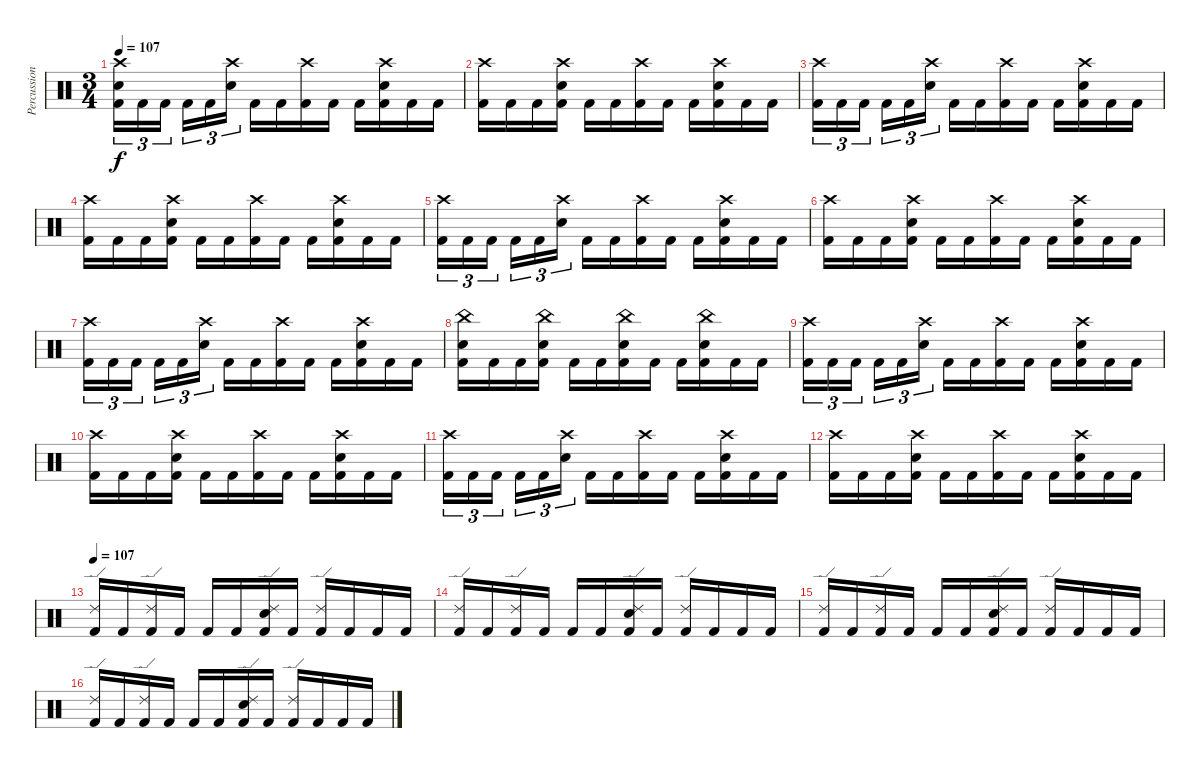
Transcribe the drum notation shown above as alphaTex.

\track ("Percussion" "Percussion") {instrument percussion}
\staff {score}
\articulation defaults
\ts (3 4)
\tempo 107
\clef neutral
\ks c
("Crash high (hit)" "Electric Snare (hit)" "Kick (hit) 2").16{tu (3 2) dy f} "Kick (hit) 2".16{tu (3 2)} "Kick (hit) 2".16{tu (3 2) beam splitsecondary} "Kick (hit) 2".16{tu (3 2)} "Kick (hit) 2".16{tu (3 2)} ("Crash high (hit)" "Electric Snare (hit)").16{tu (3 2)} "Kick (hit) 2".16 "Kick (hit) 2".16 ("Crash high (hit)" "Kick (hit) 2").16 "Kick (hit) 2".16 "Kick (hit) 2".16 ("Crash high (hit)" "Electric Snare (hit)" "Kick (hit) 2").16 "Kick (hit) 2".16 "Kick (hit) 2".16 |
("Crash high (hit)" "Kick (hit) 2").16 "Kick (hit) 2".16 "Kick (hit) 2".16 ("Crash high (hit)" "Electric Snare (hit)" "Kick (hit) 2").16 "Kick (hit) 2".16 "Kick (hit) 2".16 ("Crash high (hit)" "Kick (hit) 2").16 "Kick (hit) 2".16 "Kick (hit) 2".16 ("Crash high (hit)" "Electric Snare (hit)" "Kick (hit) 2").16 "Kick (hit) 2".16 "Kick (hit) 2".16 |
("Crash high (hit)" "Kick (hit) 2").16{tu (3 2)} "Kick (hit) 2".16{tu (3 2)} "Kick (hit) 2".16{tu (3 2) beam splitsecondary} "Kick (hit) 2".16{tu (3 2)} "Kick (hit) 2".16{tu (3 2)} ("Crash high (hit)" "Electric Snare (hit)").16{tu (3 2)} "Kick (hit) 2".16 "Kick (hit) 2".16 ("Crash high (hit)" "Kick (hit) 2").16 "Kick (hit) 2".16 "Kick (hit) 2".16 ("Crash high (hit)" "Electric Snare (hit)" "Kick (hit) 2").16 "Kick (hit) 2".16 "Kick (hit) 2".16 |
("Crash high (hit)" "Kick (hit) 2").16 "Kick (hit) 2".16 "Kick (hit) 2".16 ("Crash high (hit)" "Electric Snare (hit)" "Kick (hit) 2").16 "Kick (hit) 2".16 "Kick (hit) 2".16 ("Crash high (hit)" "Kick (hit) 2").16 "Kick (hit) 2".16 "Kick (hit) 2".16 ("Crash high (hit)" "Electric Snare (hit)" "Kick (hit) 2").16 "Kick (hit) 2".16 "Kick (hit) 2".16 |
("Crash high (hit)" "Kick (hit) 2").16{tu (3 2)} "Kick (hit) 2".16{tu (3 2)} "Kick (hit) 2".16{tu (3 2) beam splitsecondary} "Kick (hit) 2".16{tu (3 2)} "Kick (hit) 2".16{tu (3 2)} ("Crash high (hit)" "Electric Snare (hit)").16{tu (3 2)} "Kick (hit) 2".16 "Kick (hit) 2".16 ("Crash high (hit)" "Kick (hit) 2").16 "Kick (hit) 2".16 "Kick (hit) 2".16 ("Crash high (hit)" "Electric Snare (hit)" "Kick (hit) 2").16 "Kick (hit) 2".16 "Kick (hit) 2".16 |
("Crash high (hit)" "Kick (hit) 2").16 "Kick (hit) 2".16 "Kick (hit) 2".16 ("Crash high (hit)" "Electric Snare (hit)" "Kick (hit) 2").16 "Kick (hit) 2".16 "Kick (hit) 2".16 ("Crash high (hit)" "Kick (hit) 2").16 "Kick (hit) 2".16 "Kick (hit) 2".16 ("Crash high (hit)" "Electric Snare (hit)" "Kick (hit) 2").16 "Kick (hit) 2".16 "Kick (hit) 2".16 |
("Crash high (hit)" "Kick (hit) 2").16{tu (3 2)} "Kick (hit) 2".16{tu (3 2)} "Kick (hit) 2".16{tu (3 2) beam splitsecondary} "Kick (hit) 2".16{tu (3 2)} "Kick (hit) 2".16{tu (3 2)} ("Crash high (hit)" "Electric Snare (hit)").16{tu (3 2)} "Kick (hit) 2".16 "Kick (hit) 2".16 ("Crash high (hit)" "Kick (hit) 2").16 "Kick (hit) 2".16 "Kick (hit) 2".16 ("Crash high (hit)" "Electric Snare (hit)" "Kick (hit) 2").16 "Kick (hit) 2".16 "Kick (hit) 2".16 |
("Electric Snare (hit)" "China (hit)" "Kick (hit) 2").16 "Kick (hit) 2".16 "Kick (hit) 2".16 ("Electric Snare (hit)" "China (hit)" "Kick (hit) 2").16 "Kick (hit) 2".16 "Kick (hit) 2".16 ("Electric Snare (hit)" "China (hit)" "Kick (hit) 2").16 "Kick (hit) 2".16 "Kick (hit) 2".16 ("Electric Snare (hit)" "China (hit)" "Kick (hit) 2").16 "Kick (hit) 2".16 "Kick (hit) 2".16 |
("Crash high (hit)" "Kick (hit) 2").16{tu (3 2)} "Kick (hit) 2".16{tu (3 2)} "Kick (hit) 2".16{tu (3 2) beam splitsecondary} "Kick (hit) 2".16{tu (3 2)} "Kick (hit) 2".16{tu (3 2)} ("Crash high (hit)" "Electric Snare (hit)").16{tu (3 2)} "Kick (hit) 2".16 "Kick (hit) 2".16 ("Crash high (hit)" "Kick (hit) 2").16 "Kick (hit) 2".16 "Kick (hit) 2".16 ("Crash high (hit)" "Electric Snare (hit)" "Kick (hit) 2").16 "Kick (hit) 2".16 "Kick (hit) 2".16 |
("Crash high (hit)" "Kick (hit) 2").16 "Kick (hit) 2".16 "Kick (hit) 2".16 ("Crash high (hit)" "Electric Snare (hit)" "Kick (hit) 2").16 "Kick (hit) 2".16 "Kick (hit) 2".16 ("Crash high (hit)" "Kick (hit) 2").16 "Kick (hit) 2".16 "Kick (hit) 2".16 ("Crash high (hit)" "Electric Snare (hit)" "Kick (hit) 2").16 "Kick (hit) 2".16 "Kick (hit) 2".16 |
("Crash high (hit)" "Kick (hit) 2").16{tu (3 2)} "Kick (hit) 2".16{tu (3 2)} "Kick (hit) 2".16{tu (3 2) beam splitsecondary} "Kick (hit) 2".16{tu (3 2)} "Kick (hit) 2".16{tu (3 2)} ("Crash high (hit)" "Electric Snare (hit)").16{tu (3 2)} "Kick (hit) 2".16 "Kick (hit) 2".16 ("Crash high (hit)" "Kick (hit) 2").16 "Kick (hit) 2".16 "Kick (hit) 2".16 ("Crash high (hit)" "Electric Snare (hit)" "Kick (hit) 2").16 "Kick (hit) 2".16 "Kick (hit) 2".16 |
("Crash high (hit)" "Kick (hit) 2").16 "Kick (hit) 2".16 "Kick (hit) 2".16 ("Crash high (hit)" "Electric Snare (hit)" "Kick (hit) 2").16 "Kick (hit) 2".16 "Kick (hit) 2".16 ("Crash high (hit)" "Kick (hit) 2").16 "Kick (hit) 2".16 "Kick (hit) 2".16 ("Crash high (hit)" "Electric Snare (hit)" "Kick (hit) 2").16 "Kick (hit) 2".16 "Kick (hit) 2".16 |
\tempo 107
("Ride (edge) 2" "Kick (hit) 2").16 "Kick (hit) 2".16 ("Ride (edge) 2" "Kick (hit) 2").16 "Kick (hit) 2".16 "Kick (hit) 2".16 "Kick (hit) 2".16 ("Ride (edge) 2" "Electric Snare (hit)" "Kick (hit) 2").16 "Kick (hit) 2".16 ("Ride (edge) 2" "Kick (hit) 2").16 "Kick (hit) 2".16 "Kick (hit) 2".16 "Kick (hit) 2".16 |
("Ride (edge) 2" "Kick (hit) 2").16 "Kick (hit) 2".16 ("Ride (edge) 2" "Kick (hit) 2").16 "Kick (hit) 2".16 "Kick (hit) 2".16 "Kick (hit) 2".16 ("Ride (edge) 2" "Electric Snare (hit)" "Kick (hit) 2").16 "Kick (hit) 2".16 ("Ride (edge) 2" "Kick (hit) 2").16 "Kick (hit) 2".16 "Kick (hit) 2".16 "Kick (hit) 2".16 |
("Ride (edge) 2" "Kick (hit) 2").16 "Kick (hit) 2".16 ("Ride (edge) 2" "Kick (hit) 2").16 "Kick (hit) 2".16 "Kick (hit) 2".16 "Kick (hit) 2".16 ("Ride (edge) 2" "Electric Snare (hit)" "Kick (hit) 2").16 "Kick (hit) 2".16 ("Ride (edge) 2" "Kick (hit) 2").16 "Kick (hit) 2".16 "Kick (hit) 2".16 "Kick (hit) 2".16 |
("Ride (edge) 2" "Kick (hit) 2").16 "Kick (hit) 2".16 ("Ride (edge) 2" "Kick (hit) 2").16 "Kick (hit) 2".16 "Kick (hit) 2".16 "Kick (hit) 2".16 ("Ride (edge) 2" "Electric Snare (hit)" "Kick (hit) 2").16 "Kick (hit) 2".16 ("Ride (edge) 2" "Kick (hit) 2").16 "Kick (hit) 2".16 "Kick (hit) 2".16 "Kick (hit) 2".16
